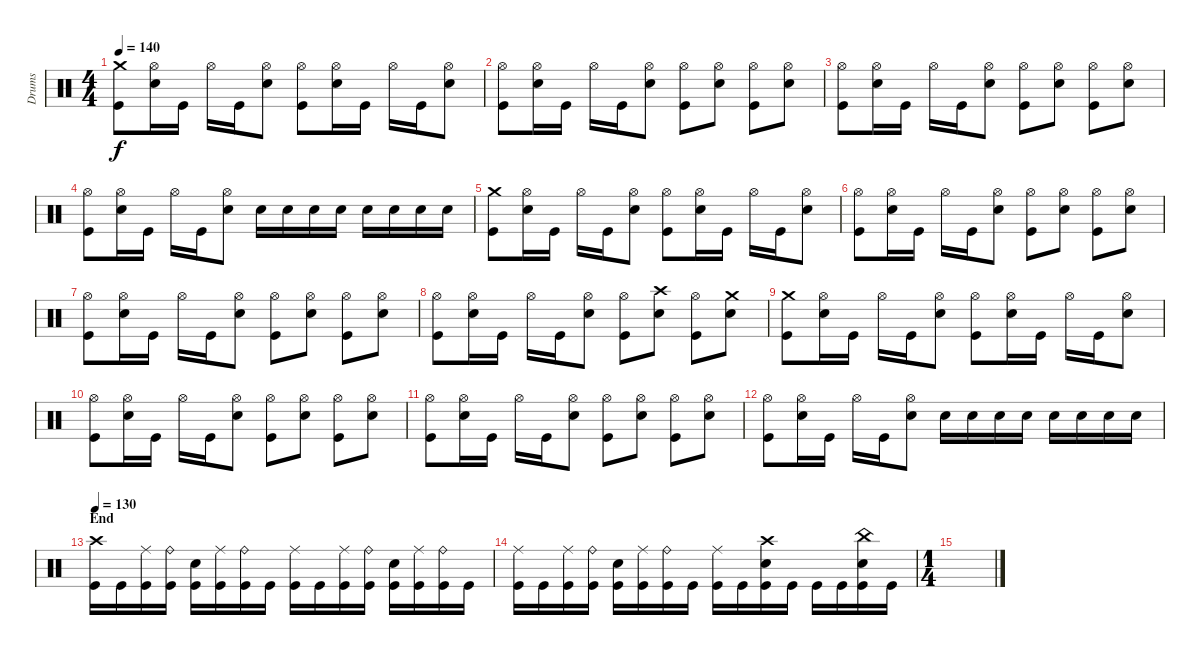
\track ("Drums" "Drums") {instrument percussion}
\staff {score}
\articulation defaults
\ts (4 4)
\tempo 140
\clef neutral
\ks c
("Crash medium (hit)" "Kick (hit)").8{dy f} ("Hi-Hat (open)" "Snare (hit) 2").16 "Kick (hit)".16 "Hi-Hat (open)".16 "Kick (hit)".16 ("Hi-Hat (open)" "Snare (hit) 2").8 ("Hi-Hat (open)" "Kick (hit)").8 ("Hi-Hat (open)" "Snare (hit) 2").16 "Kick (hit)".16 "Hi-Hat (open)".16 "Kick (hit)".16 ("Hi-Hat (open)" "Snare (hit) 2").8 |
("Hi-Hat (open)" "Kick (hit)").8 ("Hi-Hat (open)" "Snare (hit) 2").16 "Kick (hit)".16 "Hi-Hat (open)".16 "Kick (hit)".16 ("Hi-Hat (open)" "Snare (hit) 2").8 ("Hi-Hat (open)" "Kick (hit)").8 ("Hi-Hat (open)" "Snare (hit) 2").8 ("Hi-Hat (open)" "Kick (hit)").8 ("Hi-Hat (open)" "Snare (hit) 2").8 |
("Hi-Hat (open)" "Kick (hit)").8 ("Hi-Hat (open)" "Snare (hit) 2").16 "Kick (hit)".16 "Hi-Hat (open)".16 "Kick (hit)".16 ("Hi-Hat (open)" "Snare (hit) 2").8 ("Hi-Hat (open)" "Kick (hit)").8 ("Hi-Hat (open)" "Snare (hit) 2").8 ("Hi-Hat (open)" "Kick (hit)").8 ("Hi-Hat (open)" "Snare (hit) 2").8 |
("Hi-Hat (open)" "Kick (hit)").8 ("Hi-Hat (open)" "Snare (hit) 2").16 "Kick (hit)".16 "Hi-Hat (open)".16 "Kick (hit)".16 ("Hi-Hat (open)" "Snare (hit) 2").8 "Snare (hit) 2".16 "Snare (hit) 2".16 "Snare (hit) 2".16 "Snare (hit) 2".16 "Snare (hit) 2".16 "Snare (hit) 2".16 "Snare (hit) 2".16 "Snare (hit) 2".16 |
("Crash medium (hit)" "Kick (hit)").8 ("Hi-Hat (open)" "Snare (hit) 2").16 "Kick (hit)".16 "Hi-Hat (open)".16 "Kick (hit)".16 ("Hi-Hat (open)" "Snare (hit) 2").8 ("Hi-Hat (open)" "Kick (hit)").8 ("Hi-Hat (open)" "Snare (hit) 2").16 "Kick (hit)".16 "Hi-Hat (open)".16 "Kick (hit)".16 ("Hi-Hat (open)" "Snare (hit) 2").8 |
("Hi-Hat (open)" "Kick (hit)").8 ("Hi-Hat (open)" "Snare (hit) 2").16 "Kick (hit)".16 "Hi-Hat (open)".16 "Kick (hit)".16 ("Hi-Hat (open)" "Snare (hit) 2").8 ("Hi-Hat (open)" "Kick (hit)").8 ("Hi-Hat (open)" "Snare (hit) 2").8 ("Hi-Hat (open)" "Kick (hit)").8 ("Hi-Hat (open)" "Snare (hit) 2").8 |
("Hi-Hat (open)" "Kick (hit)").8 ("Hi-Hat (open)" "Snare (hit) 2").16 "Kick (hit)".16 "Hi-Hat (open)".16 "Kick (hit)".16 ("Hi-Hat (open)" "Snare (hit) 2").8 ("Hi-Hat (open)" "Kick (hit)").8 ("Hi-Hat (open)" "Snare (hit) 2").8 ("Hi-Hat (open)" "Kick (hit)").8 ("Hi-Hat (open)" "Snare (hit) 2").8 |
("Hi-Hat (open)" "Kick (hit)").8 ("Hi-Hat (open)" "Snare (hit) 2").16 "Kick (hit)".16 "Hi-Hat (open)".16 "Kick (hit)".16 ("Hi-Hat (open)" "Snare (hit) 2").8 ("Hi-Hat (open)" "Kick (hit)").8 ("Crash high (hit)" "Snare (hit) 2").8 ("Hi-Hat (open)" "Kick (hit)").8 ("Crash medium (hit)" "Snare (hit) 2").8 |
("Crash medium (hit)" "Kick (hit)").8 ("Hi-Hat (open)" "Snare (hit) 2").16 "Kick (hit)".16 "Hi-Hat (open)".16 "Kick (hit)".16 ("Hi-Hat (open)" "Snare (hit) 2").8 ("Hi-Hat (open)" "Kick (hit)").8 ("Hi-Hat (open)" "Snare (hit) 2").16 "Kick (hit)".16 "Hi-Hat (open)".16 "Kick (hit)".16 ("Hi-Hat (open)" "Snare (hit) 2").8 |
("Hi-Hat (open)" "Kick (hit)").8 ("Hi-Hat (open)" "Snare (hit) 2").16 "Kick (hit)".16 "Hi-Hat (open)".16 "Kick (hit)".16 ("Hi-Hat (open)" "Snare (hit) 2").8 ("Hi-Hat (open)" "Kick (hit)").8 ("Hi-Hat (open)" "Snare (hit) 2").8 ("Hi-Hat (open)" "Kick (hit)").8 ("Hi-Hat (open)" "Snare (hit) 2").8 |
("Hi-Hat (open)" "Kick (hit)").8 ("Hi-Hat (open)" "Snare (hit) 2").16 "Kick (hit)".16 "Hi-Hat (open)".16 "Kick (hit)".16 ("Hi-Hat (open)" "Snare (hit) 2").8 ("Hi-Hat (open)" "Kick (hit)").8 ("Hi-Hat (open)" "Snare (hit) 2").8 ("Hi-Hat (open)" "Kick (hit)").8 ("Hi-Hat (open)" "Snare (hit) 2").8 |
("Hi-Hat (open)" "Kick (hit)").8 ("Hi-Hat (open)" "Snare (hit) 2").16 "Kick (hit)".16 "Hi-Hat (open)".16 "Kick (hit)".16 ("Hi-Hat (open)" "Snare (hit) 2").8 "Snare (hit) 2".16 "Snare (hit) 2".16 "Snare (hit) 2".16 "Snare (hit) 2".16 "Snare (hit) 2".16 "Snare (hit) 2".16 "Snare (hit) 2".16 "Snare (hit) 2".16 |
\section ("" "End")
\tempo 130
("Crash high (hit)" "Kick (hit)").16 "Kick (hit)".16 ("Ride (middle)" "Kick (hit)").16 ("Ride (bell)" "Kick (hit)").16 ("Snare (hit) 2" "Kick (hit)").16 ("Ride (middle)" "Kick (hit)").16 ("Ride (bell)" "Kick (hit)").16 "Kick (hit)".16 ("Ride (middle)" "Kick (hit)").16 "Kick (hit)".16 ("Ride (middle)" "Kick (hit)").16 ("Ride (bell)" "Kick (hit)").16 ("Snare (hit) 2" "Kick (hit)").16 ("Ride (middle)" "Kick (hit)").16 ("Ride (bell)" "Kick (hit)").16 "Kick (hit)".16 |
("Ride (middle)" "Kick (hit)").16 "Kick (hit)".16 ("Ride (middle)" "Kick (hit)").16 ("Ride (bell)" "Kick (hit)").16 ("Snare (hit) 2" "Kick (hit)").16 ("Ride (middle)" "Kick (hit)").16 ("Ride (bell)" "Kick (hit)").16 "Kick (hit)".16 ("Ride (middle)" "Kick (hit)").16 "Kick (hit)".16 ("Crash high (hit)" "Snare (hit) 2" "Kick (hit)").16 "Kick (hit)".16 "Kick (hit)".16 "Kick (hit)".16 ("China (hit)" "Snare (hit) 2" "Kick (hit)").16 "Kick (hit)".16 |
\ts (1 4)
